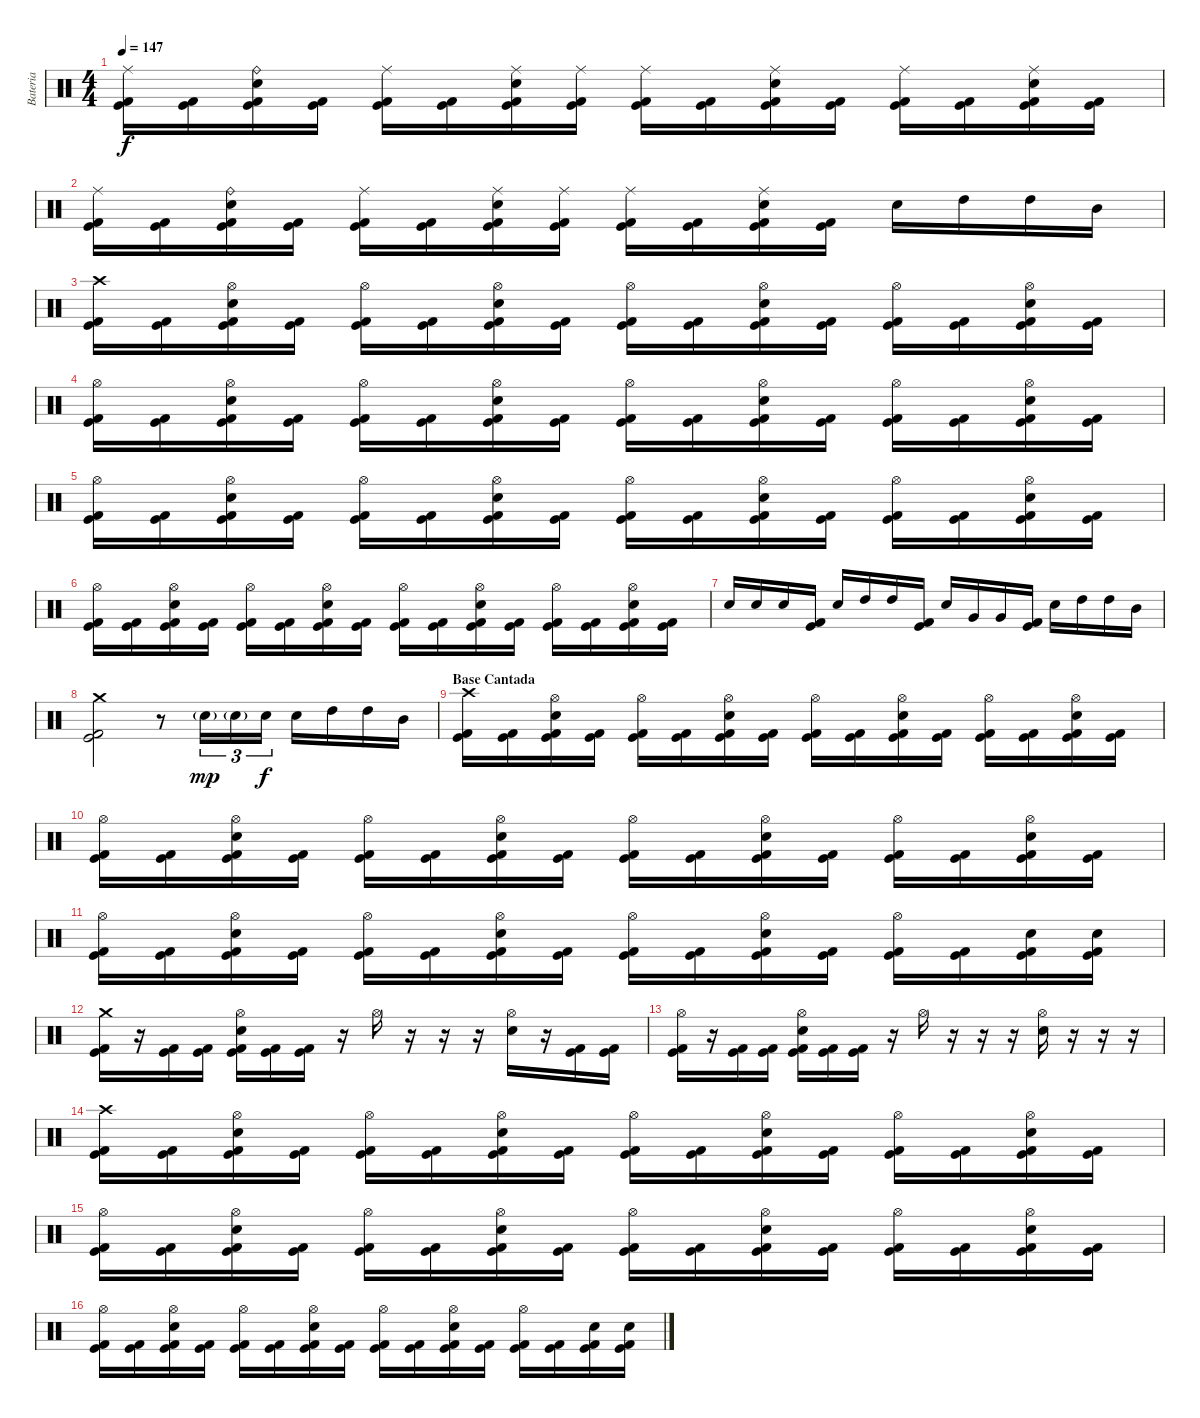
\track ("Bateria" "Bateria") {instrument percussion}
\staff {score}
\articulation defaults
\ts (4 4)
\tempo 147
\clef neutral
\ks c
("Ride (middle)" "Kick (hit)" "Kick (hit) 2").16{dy f} ("Kick (hit)" "Kick (hit) 2").16 ("Ride (bell)" "Electric Snare (hit)" "Kick (hit)" "Kick (hit) 2").16 ("Kick (hit)" "Kick (hit) 2").16 ("Ride (middle)" "Kick (hit)" "Kick (hit) 2").16 ("Kick (hit)" "Kick (hit) 2").16 ("Ride (middle)" "Electric Snare (hit)" "Kick (hit)" "Kick (hit) 2").16 ("Ride (middle)" "Kick (hit)" "Kick (hit) 2").16 ("Ride (middle)" "Kick (hit)" "Kick (hit) 2").16 ("Kick (hit)" "Kick (hit) 2").16 ("Ride (middle)" "Electric Snare (hit)" "Kick (hit)" "Kick (hit) 2").16 ("Kick (hit)" "Kick (hit) 2").16 ("Ride (middle)" "Kick (hit)" "Kick (hit) 2").16 ("Kick (hit)" "Kick (hit) 2").16 ("Ride (middle)" "Electric Snare (hit)" "Kick (hit)" "Kick (hit) 2").16 ("Kick (hit)" "Kick (hit) 2").16 |
("Ride (middle)" "Kick (hit)" "Kick (hit) 2").16 ("Kick (hit)" "Kick (hit) 2").16 ("Ride (bell)" "Electric Snare (hit)" "Kick (hit)" "Kick (hit) 2").16 ("Kick (hit)" "Kick (hit) 2").16 ("Ride (middle)" "Kick (hit)" "Kick (hit) 2").16 ("Kick (hit)" "Kick (hit) 2").16 ("Ride (middle)" "Electric Snare (hit)" "Kick (hit)" "Kick (hit) 2").16 ("Ride (middle)" "Kick (hit)" "Kick (hit) 2").16 ("Ride (middle)" "Kick (hit)" "Kick (hit) 2").16 ("Kick (hit)" "Kick (hit) 2").16 ("Ride (middle)" "Electric Snare (hit)" "Kick (hit)" "Kick (hit) 2").16 ("Kick (hit)" "Kick (hit) 2").16 "Electric Snare (hit)".16 "High Tom (hit)".16 "High Tom (hit)".16 "Mid Tom (hit)".16 |
("Crash high (hit)" "Kick (hit)" "Kick (hit) 2").16 ("Kick (hit)" "Kick (hit) 2").16 ("Hi-Hat (open)" "Electric Snare (hit)" "Kick (hit)" "Kick (hit) 2").16 ("Kick (hit)" "Kick (hit) 2").16 ("Hi-Hat (open)" "Kick (hit)" "Kick (hit) 2").16 ("Kick (hit)" "Kick (hit) 2").16 ("Hi-Hat (open)" "Electric Snare (hit)" "Kick (hit)" "Kick (hit) 2").16 ("Kick (hit)" "Kick (hit) 2").16 ("Hi-Hat (open)" "Kick (hit)" "Kick (hit) 2").16 ("Kick (hit)" "Kick (hit) 2").16 ("Hi-Hat (open)" "Electric Snare (hit)" "Kick (hit)" "Kick (hit) 2").16 ("Kick (hit)" "Kick (hit) 2").16 ("Hi-Hat (open)" "Kick (hit)" "Kick (hit) 2").16 ("Kick (hit)" "Kick (hit) 2").16 ("Hi-Hat (open)" "Electric Snare (hit)" "Kick (hit)" "Kick (hit) 2").16 ("Kick (hit)" "Kick (hit) 2").16 |
("Hi-Hat (open)" "Kick (hit)" "Kick (hit) 2").16 ("Kick (hit)" "Kick (hit) 2").16 ("Hi-Hat (open)" "Electric Snare (hit)" "Kick (hit)" "Kick (hit) 2").16 ("Kick (hit)" "Kick (hit) 2").16 ("Hi-Hat (open)" "Kick (hit)" "Kick (hit) 2").16 ("Kick (hit)" "Kick (hit) 2").16 ("Hi-Hat (open)" "Electric Snare (hit)" "Kick (hit)" "Kick (hit) 2").16 ("Kick (hit)" "Kick (hit) 2").16 ("Hi-Hat (open)" "Kick (hit)" "Kick (hit) 2").16 ("Kick (hit)" "Kick (hit) 2").16 ("Hi-Hat (open)" "Electric Snare (hit)" "Kick (hit)" "Kick (hit) 2").16 ("Kick (hit)" "Kick (hit) 2").16 ("Hi-Hat (open)" "Kick (hit)" "Kick (hit) 2").16 ("Kick (hit)" "Kick (hit) 2").16 ("Hi-Hat (open)" "Electric Snare (hit)" "Kick (hit)" "Kick (hit) 2").16 ("Kick (hit)" "Kick (hit) 2").16 |
("Hi-Hat (open)" "Kick (hit)" "Kick (hit) 2").16 ("Kick (hit)" "Kick (hit) 2").16 ("Hi-Hat (open)" "Electric Snare (hit)" "Kick (hit)" "Kick (hit) 2").16 ("Kick (hit)" "Kick (hit) 2").16 ("Hi-Hat (open)" "Kick (hit)" "Kick (hit) 2").16 ("Kick (hit)" "Kick (hit) 2").16 ("Hi-Hat (open)" "Electric Snare (hit)" "Kick (hit)" "Kick (hit) 2").16 ("Kick (hit)" "Kick (hit) 2").16 ("Hi-Hat (open)" "Kick (hit)" "Kick (hit) 2").16 ("Kick (hit)" "Kick (hit) 2").16 ("Hi-Hat (open)" "Electric Snare (hit)" "Kick (hit)" "Kick (hit) 2").16 ("Kick (hit)" "Kick (hit) 2").16 ("Hi-Hat (open)" "Kick (hit)" "Kick (hit) 2").16 ("Kick (hit)" "Kick (hit) 2").16 ("Hi-Hat (open)" "Electric Snare (hit)" "Kick (hit)" "Kick (hit) 2").16 ("Kick (hit)" "Kick (hit) 2").16 |
("Hi-Hat (open)" "Kick (hit)" "Kick (hit) 2").16 ("Kick (hit)" "Kick (hit) 2").16 ("Hi-Hat (open)" "Electric Snare (hit)" "Kick (hit)" "Kick (hit) 2").16 ("Kick (hit)" "Kick (hit) 2").16 ("Hi-Hat (open)" "Kick (hit)" "Kick (hit) 2").16 ("Kick (hit)" "Kick (hit) 2").16 ("Hi-Hat (open)" "Electric Snare (hit)" "Kick (hit)" "Kick (hit) 2").16 ("Kick (hit)" "Kick (hit) 2").16 ("Hi-Hat (open)" "Kick (hit)" "Kick (hit) 2").16 ("Kick (hit)" "Kick (hit) 2").16 ("Hi-Hat (open)" "Electric Snare (hit)" "Kick (hit)" "Kick (hit) 2").16 ("Kick (hit)" "Kick (hit) 2").16 ("Hi-Hat (open)" "Kick (hit)" "Kick (hit) 2").16 ("Kick (hit)" "Kick (hit) 2").16 ("Hi-Hat (open)" "Electric Snare (hit)" "Kick (hit)" "Kick (hit) 2").16 ("Kick (hit)" "Kick (hit) 2").16 |
"Electric Snare (hit)".16 "Electric Snare (hit)".16 "Electric Snare (hit)".16 ("Kick (hit)" "Kick (hit) 2").16 "Electric Snare (hit)".16 "High Tom (hit)".16 "High Tom (hit)".16 ("Kick (hit)" "Kick (hit) 2").16 "Electric Snare (hit)".16 "Very Low Tom (hit)".16 "Very Low Tom (hit)".16 ("Kick (hit)" "Kick (hit) 2").16 "Electric Snare (hit)".16 "High Tom (hit)".16 "High Tom (hit)".16 "Mid Tom (hit)".16 |
("Crash medium (hit)" "Kick (hit)" "Kick (hit) 2").2 r.8 "Electric Snare (hit)"{g}.16{tu (3 2) dy mp} "Electric Snare (hit)"{g}.16{tu (3 2)} "Electric Snare (hit)".16{tu (3 2) dy f} "Electric Snare (hit)".16 "High Tom (hit)".16 "High Tom (hit)".16 "Mid Tom (hit)".16 |
\section ("" "Base Cantada")
("Crash high (hit)" "Kick (hit)" "Kick (hit) 2").16 ("Kick (hit)" "Kick (hit) 2").16 ("Hi-Hat (open)" "Electric Snare (hit)" "Kick (hit)" "Kick (hit) 2").16 ("Kick (hit)" "Kick (hit) 2").16 ("Hi-Hat (open)" "Kick (hit)" "Kick (hit) 2").16 ("Kick (hit)" "Kick (hit) 2").16 ("Hi-Hat (open)" "Electric Snare (hit)" "Kick (hit)" "Kick (hit) 2").16 ("Kick (hit)" "Kick (hit) 2").16 ("Hi-Hat (open)" "Kick (hit)" "Kick (hit) 2").16 ("Kick (hit)" "Kick (hit) 2").16 ("Hi-Hat (open)" "Electric Snare (hit)" "Kick (hit)" "Kick (hit) 2").16 ("Kick (hit)" "Kick (hit) 2").16 ("Hi-Hat (open)" "Kick (hit)" "Kick (hit) 2").16 ("Kick (hit)" "Kick (hit) 2").16 ("Hi-Hat (open)" "Electric Snare (hit)" "Kick (hit)" "Kick (hit) 2").16 ("Kick (hit)" "Kick (hit) 2").16 |
("Hi-Hat (open)" "Kick (hit)" "Kick (hit) 2").16 ("Kick (hit)" "Kick (hit) 2").16 ("Hi-Hat (open)" "Electric Snare (hit)" "Kick (hit)" "Kick (hit) 2").16 ("Kick (hit)" "Kick (hit) 2").16 ("Hi-Hat (open)" "Kick (hit)" "Kick (hit) 2").16 ("Kick (hit)" "Kick (hit) 2").16 ("Hi-Hat (open)" "Electric Snare (hit)" "Kick (hit)" "Kick (hit) 2").16 ("Kick (hit)" "Kick (hit) 2").16 ("Hi-Hat (open)" "Kick (hit)" "Kick (hit) 2").16 ("Kick (hit)" "Kick (hit) 2").16 ("Hi-Hat (open)" "Electric Snare (hit)" "Kick (hit)" "Kick (hit) 2").16 ("Kick (hit)" "Kick (hit) 2").16 ("Hi-Hat (open)" "Kick (hit)" "Kick (hit) 2").16 ("Kick (hit)" "Kick (hit) 2").16 ("Hi-Hat (open)" "Electric Snare (hit)" "Kick (hit)" "Kick (hit) 2").16 ("Kick (hit)" "Kick (hit) 2").16 |
("Hi-Hat (open)" "Kick (hit)" "Kick (hit) 2").16 ("Kick (hit)" "Kick (hit) 2").16 ("Hi-Hat (open)" "Electric Snare (hit)" "Kick (hit)" "Kick (hit) 2").16 ("Kick (hit)" "Kick (hit) 2").16 ("Hi-Hat (open)" "Kick (hit)" "Kick (hit) 2").16 ("Kick (hit)" "Kick (hit) 2").16 ("Hi-Hat (open)" "Electric Snare (hit)" "Kick (hit)" "Kick (hit) 2").16 ("Kick (hit)" "Kick (hit) 2").16 ("Hi-Hat (open)" "Kick (hit)" "Kick (hit) 2").16 ("Kick (hit)" "Kick (hit) 2").16 ("Hi-Hat (open)" "Electric Snare (hit)" "Kick (hit)" "Kick (hit) 2").16 ("Kick (hit)" "Kick (hit) 2").16 ("Hi-Hat (open)" "Kick (hit)" "Kick (hit) 2").16 ("Kick (hit)" "Kick (hit) 2").16 ("Electric Snare (hit)" "Kick (hit)" "Kick (hit) 2").16 ("Electric Snare (hit)" "Kick (hit)" "Kick (hit) 2").16 |
("Crash medium (hit)" "Kick (hit)" "Kick (hit) 2").16 r.16 ("Kick (hit)" "Kick (hit) 2").16 ("Kick (hit)" "Kick (hit) 2").16 ("Hi-Hat (open)" "Electric Snare (hit)" "Kick (hit)" "Kick (hit) 2").16 ("Kick (hit)" "Kick (hit) 2").16 ("Kick (hit)" "Kick (hit) 2").16 r.16 "Hi-Hat (open)".16 r.16 r.16 r.16 ("Hi-Hat (open)" "Electric Snare (hit)").16 r.16 ("Kick (hit)" "Kick (hit) 2").16 ("Kick (hit)" "Kick (hit) 2").16 |
("Hi-Hat (open)" "Kick (hit)" "Kick (hit) 2").16 r.16 ("Kick (hit)" "Kick (hit) 2").16 ("Kick (hit)" "Kick (hit) 2").16 ("Hi-Hat (open)" "Electric Snare (hit)" "Kick (hit)" "Kick (hit) 2").16 ("Kick (hit)" "Kick (hit) 2").16 ("Kick (hit)" "Kick (hit) 2").16 r.16 "Hi-Hat (open)".16 r.16 r.16 r.16 ("Hi-Hat (open)" "Electric Snare (hit)").16 r.16 r.16 r.16 |
("Crash high (hit)" "Kick (hit)" "Kick (hit) 2").16 ("Kick (hit)" "Kick (hit) 2").16 ("Hi-Hat (open)" "Electric Snare (hit)" "Kick (hit)" "Kick (hit) 2").16 ("Kick (hit)" "Kick (hit) 2").16 ("Hi-Hat (open)" "Kick (hit)" "Kick (hit) 2").16 ("Kick (hit)" "Kick (hit) 2").16 ("Hi-Hat (open)" "Electric Snare (hit)" "Kick (hit)" "Kick (hit) 2").16 ("Kick (hit)" "Kick (hit) 2").16 ("Hi-Hat (open)" "Kick (hit)" "Kick (hit) 2").16 ("Kick (hit)" "Kick (hit) 2").16 ("Hi-Hat (open)" "Electric Snare (hit)" "Kick (hit)" "Kick (hit) 2").16 ("Kick (hit)" "Kick (hit) 2").16 ("Hi-Hat (open)" "Kick (hit)" "Kick (hit) 2").16 ("Kick (hit)" "Kick (hit) 2").16 ("Hi-Hat (open)" "Electric Snare (hit)" "Kick (hit)" "Kick (hit) 2").16 ("Kick (hit)" "Kick (hit) 2").16 |
("Hi-Hat (open)" "Kick (hit)" "Kick (hit) 2").16 ("Kick (hit)" "Kick (hit) 2").16 ("Hi-Hat (open)" "Electric Snare (hit)" "Kick (hit)" "Kick (hit) 2").16 ("Kick (hit)" "Kick (hit) 2").16 ("Hi-Hat (open)" "Kick (hit)" "Kick (hit) 2").16 ("Kick (hit)" "Kick (hit) 2").16 ("Hi-Hat (open)" "Electric Snare (hit)" "Kick (hit)" "Kick (hit) 2").16 ("Kick (hit)" "Kick (hit) 2").16 ("Hi-Hat (open)" "Kick (hit)" "Kick (hit) 2").16 ("Kick (hit)" "Kick (hit) 2").16 ("Hi-Hat (open)" "Electric Snare (hit)" "Kick (hit)" "Kick (hit) 2").16 ("Kick (hit)" "Kick (hit) 2").16 ("Hi-Hat (open)" "Kick (hit)" "Kick (hit) 2").16 ("Kick (hit)" "Kick (hit) 2").16 ("Hi-Hat (open)" "Electric Snare (hit)" "Kick (hit)" "Kick (hit) 2").16 ("Kick (hit)" "Kick (hit) 2").16 |
("Hi-Hat (open)" "Kick (hit)" "Kick (hit) 2").16 ("Kick (hit)" "Kick (hit) 2").16 ("Hi-Hat (open)" "Electric Snare (hit)" "Kick (hit)" "Kick (hit) 2").16 ("Kick (hit)" "Kick (hit) 2").16 ("Hi-Hat (open)" "Kick (hit)" "Kick (hit) 2").16 ("Kick (hit)" "Kick (hit) 2").16 ("Hi-Hat (open)" "Electric Snare (hit)" "Kick (hit)" "Kick (hit) 2").16 ("Kick (hit)" "Kick (hit) 2").16 ("Hi-Hat (open)" "Kick (hit)" "Kick (hit) 2").16 ("Kick (hit)" "Kick (hit) 2").16 ("Hi-Hat (open)" "Electric Snare (hit)" "Kick (hit)" "Kick (hit) 2").16 ("Kick (hit)" "Kick (hit) 2").16 ("Hi-Hat (open)" "Kick (hit)" "Kick (hit) 2").16 ("Kick (hit)" "Kick (hit) 2").16 ("Electric Snare (hit)" "Kick (hit)" "Kick (hit) 2").16 ("Electric Snare (hit)" "Kick (hit)" "Kick (hit) 2").16
